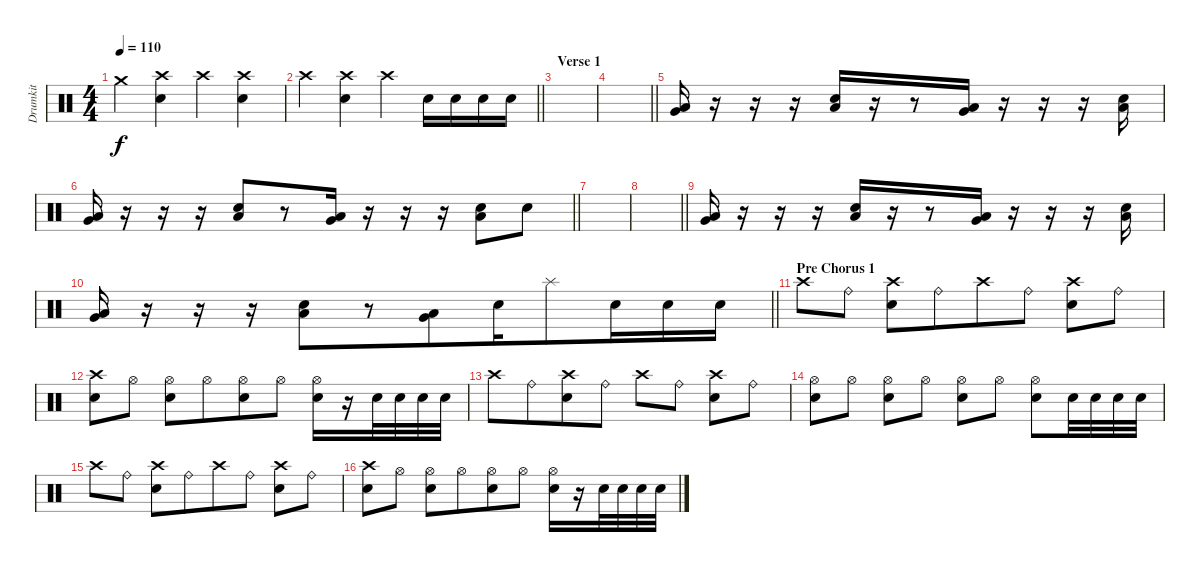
\track ("Drumkit" "Drumkit") {instrument percussion}
\staff {score}
\articulation defaults
\ts (4 4)
\tempo 110
\clef neutral
\ks c "Crash medium (hit)".4{dy f}
("Crash high (hit)" "Electric Snare (hit)").4{beam merge} "Crash high (hit)".4 ("Crash high (hit)" "Electric Snare (hit)").4 |
\barLineRight lightlight "Crash high (hit)".4
("Crash high (hit)" "Electric Snare (hit)").4{beam merge} "Crash high (hit)".4 "Electric Snare (hit)".16 "Electric Snare (hit)".16{beam merge} "Electric Snare (hit)".16 "Electric Snare (hit)".16 |
\section ("" "Verse 1")
|
\barLineRight lightlight
|
("Low Floor Tom (hit)" "Very Low Tom (hit)").16 r.16 r.16{beam merge} r.16{beam merge} ("Low Floor Tom (hit)" "Electric Snare (hit)").16{beam merge} r.16{beam merge} r.8 ("Low Floor Tom (hit)" "Very Low Tom (hit)").16 r.16 r.16 r.16{beam merge} ("Low Floor Tom (hit)" "Electric Snare (hit)").16 |
\barLineRight lightlight
("Low Floor Tom (hit)" "Very Low Tom (hit)").16 r.16 r.16{beam merge} r.16{beam merge} ("Low Floor Tom (hit)" "Electric Snare (hit)").8{beam merge} r.8 ("Low Floor Tom (hit)" "Very Low Tom (hit)").16 r.16 r.16 r.16{beam merge} ("Low Floor Tom (hit)" "Electric Snare (hit)").8 "Electric Snare (hit)".8 |
|
\barLineRight lightlight
|
("Low Floor Tom (hit)" "Very Low Tom (hit)").16 r.16 r.16{beam merge} r.16{beam merge} ("Low Floor Tom (hit)" "Electric Snare (hit)").16{beam merge} r.16{beam merge} r.8 ("Low Floor Tom (hit)" "Very Low Tom (hit)").16 r.16 r.16 r.16{beam merge} ("Low Floor Tom (hit)" "Electric Snare (hit)").16 |
\barLineRight lightlight
("Low Floor Tom (hit)" "Very Low Tom (hit)").16 r.16 r.16{beam merge} r.16{beam merge} ("Low Floor Tom (hit)" "Electric Snare (hit)").8{beam merge} r.8 ("Low Floor Tom (hit)" "Very Low Tom (hit)").8 "Electric Snare (hit)".16 "Splash (hit)".8{beam merge} "Electric Snare (hit)".16 "Electric Snare (hit)".16 "Electric Snare (hit)".16 |
\section ("" "Pre Chorus 1")
"Crash high (hit)".8 "Ride (bell)".8 ("Crash high (hit)" "Electric Snare (hit)").8 "Ride (bell)".8{beam merge} "Crash high (hit)".8{beam merge} "Ride (bell)".8 ("Crash high (hit)" "Electric Snare (hit)").8{beam merge} "Ride (bell)".8 |
("Crash high (hit)" "Electric Snare (hit)").8{beam merge} "Hi-Hat (open)".8 ("Hi-Hat (open)" "Electric Snare (hit)").8{beam merge} "Hi-Hat (open)".8{beam merge} ("Hi-Hat (open)" "Electric Snare (hit)").8 "Hi-Hat (open)".8 ("Hi-Hat (open)" "Electric Snare (hit)").16 r.16 "Electric Snare (hit)".32 "Electric Snare (hit)".32{beam merge} "Electric Snare (hit)".32 "Electric Snare (hit)".32 |
"Crash high (hit)".8 "Ride (bell)".8{beam merge} ("Crash high (hit)" "Electric Snare (hit)").8 "Ride (bell)".8 "Crash high (hit)".8{beam merge} "Ride (bell)".8 ("Crash high (hit)" "Electric Snare (hit)").8 "Ride (bell)".8 |
("Hi-Hat (open)" "Electric Snare (hit)").8{beam merge} "Hi-Hat (open)".8 ("Hi-Hat (open)" "Electric Snare (hit)").8 "Hi-Hat (open)".8 ("Hi-Hat (open)" "Electric Snare (hit)").8 "Hi-Hat (open)".8 ("Hi-Hat (open)" "Electric Snare (hit)").8 "Electric Snare (hit)".32 "Electric Snare (hit)".32{beam merge} "Electric Snare (hit)".32{beam merge} "Electric Snare (hit)".32 |
"Crash high (hit)".8 "Ride (bell)".8 ("Crash high (hit)" "Electric Snare (hit)").8 "Ride (bell)".8{beam merge} "Crash high (hit)".8{beam merge} "Ride (bell)".8 ("Crash high (hit)" "Electric Snare (hit)").8{beam merge} "Ride (bell)".8 |
("Crash high (hit)" "Electric Snare (hit)").8{beam merge} "Hi-Hat (open)".8 ("Hi-Hat (open)" "Electric Snare (hit)").8{beam merge} "Hi-Hat (open)".8{beam merge} ("Hi-Hat (open)" "Electric Snare (hit)").8 "Hi-Hat (open)".8 ("Hi-Hat (open)" "Electric Snare (hit)").16 r.16 "Electric Snare (hit)".32 "Electric Snare (hit)".32 "Electric Snare (hit)".32 "Electric Snare (hit)".32
